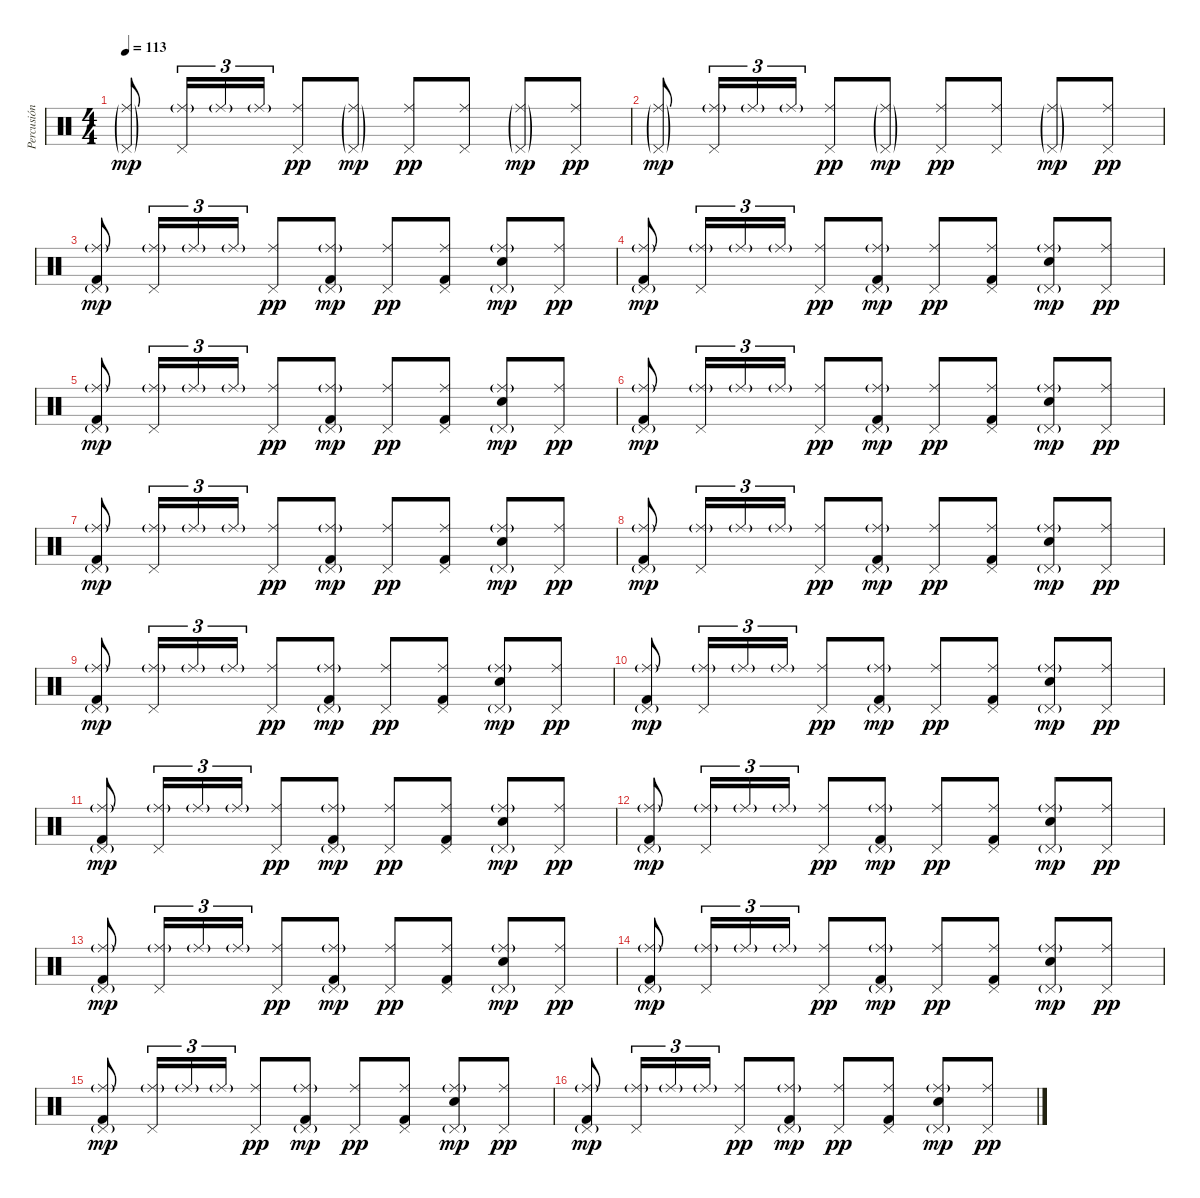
\track ("Percusión" "Percusión") {instrument percussion}
\staff {score}
\articulation defaults
\ts (4 4)
\tempo 113
\clef neutral
\ks c
("Pedal Hi-Hat (hit)"{g} "Ride (middle)"{g}).8{dy mp} ("Pedal Hi-Hat (hit)" "Ride (middle)"{g}).16{tu (3 2)} "Ride (middle)"{g}.16{tu (3 2)} "Ride (middle)"{g}.16{tu (3 2)} ("Pedal Hi-Hat (hit)" "Ride (middle)").8{dy pp} ("Pedal Hi-Hat (hit)"{g} "Ride (middle)"{g}).8{dy mp} ("Pedal Hi-Hat (hit)" "Ride (middle)").8{dy pp} ("Pedal Hi-Hat (hit)" "Ride (middle)").8 ("Pedal Hi-Hat (hit)"{g} "Ride (middle)"{g}).8{dy mp} ("Pedal Hi-Hat (hit)" "Ride (middle)").8{dy pp} |
("Pedal Hi-Hat (hit)"{g} "Ride (middle)"{g}).8{dy mp} ("Pedal Hi-Hat (hit)" "Ride (middle)"{g}).16{tu (3 2)} "Ride (middle)"{g}.16{tu (3 2)} "Ride (middle)"{g}.16{tu (3 2)} ("Pedal Hi-Hat (hit)" "Ride (middle)").8{dy pp} ("Pedal Hi-Hat (hit)"{g} "Ride (middle)"{g}).8{dy mp} ("Pedal Hi-Hat (hit)" "Ride (middle)").8{dy pp} ("Pedal Hi-Hat (hit)" "Ride (middle)").8 ("Pedal Hi-Hat (hit)"{g} "Ride (middle)"{g}).8{dy mp} ("Pedal Hi-Hat (hit)" "Ride (middle)").8{dy pp} |
("Kick (hit) 2" "Pedal Hi-Hat (hit)"{g} "Ride (middle)"{g}).8{dy mp} ("Pedal Hi-Hat (hit)" "Ride (middle)"{g}).16{tu (3 2)} "Ride (middle)"{g}.16{tu (3 2)} "Ride (middle)"{g}.16{tu (3 2)} ("Pedal Hi-Hat (hit)" "Ride (middle)").8{dy pp} ("Kick (hit) 2" "Pedal Hi-Hat (hit)"{g} "Ride (middle)"{g}).8{dy mp} ("Pedal Hi-Hat (hit)" "Ride (middle)").8{dy pp} ("Kick (hit) 2" "Pedal Hi-Hat (hit)" "Ride (middle)").8 ("Snare (hit) 2" "Pedal Hi-Hat (hit)"{g} "Ride (middle)"{g}).8{dy mp} ("Pedal Hi-Hat (hit)" "Ride (middle)").8{dy pp} |
("Kick (hit) 2" "Pedal Hi-Hat (hit)"{g} "Ride (middle)"{g}).8{dy mp} ("Pedal Hi-Hat (hit)" "Ride (middle)"{g}).16{tu (3 2)} "Ride (middle)"{g}.16{tu (3 2)} "Ride (middle)"{g}.16{tu (3 2)} ("Pedal Hi-Hat (hit)" "Ride (middle)").8{dy pp} ("Kick (hit) 2" "Pedal Hi-Hat (hit)"{g} "Ride (middle)"{g}).8{dy mp} ("Pedal Hi-Hat (hit)" "Ride (middle)").8{dy pp} ("Kick (hit) 2" "Pedal Hi-Hat (hit)" "Ride (middle)").8 ("Snare (hit) 2" "Pedal Hi-Hat (hit)"{g} "Ride (middle)"{g}).8{dy mp} ("Pedal Hi-Hat (hit)" "Ride (middle)").8{dy pp} |
("Kick (hit) 2" "Pedal Hi-Hat (hit)"{g} "Ride (middle)"{g}).8{dy mp} ("Pedal Hi-Hat (hit)" "Ride (middle)"{g}).16{tu (3 2)} "Ride (middle)"{g}.16{tu (3 2)} "Ride (middle)"{g}.16{tu (3 2)} ("Pedal Hi-Hat (hit)" "Ride (middle)").8{dy pp} ("Kick (hit) 2" "Pedal Hi-Hat (hit)"{g} "Ride (middle)"{g}).8{dy mp} ("Pedal Hi-Hat (hit)" "Ride (middle)").8{dy pp} ("Kick (hit) 2" "Pedal Hi-Hat (hit)" "Ride (middle)").8 ("Snare (hit) 2" "Pedal Hi-Hat (hit)"{g} "Ride (middle)"{g}).8{dy mp} ("Pedal Hi-Hat (hit)" "Ride (middle)").8{dy pp} |
("Kick (hit) 2" "Pedal Hi-Hat (hit)"{g} "Ride (middle)"{g}).8{dy mp} ("Pedal Hi-Hat (hit)" "Ride (middle)"{g}).16{tu (3 2)} "Ride (middle)"{g}.16{tu (3 2)} "Ride (middle)"{g}.16{tu (3 2)} ("Pedal Hi-Hat (hit)" "Ride (middle)").8{dy pp} ("Kick (hit) 2" "Pedal Hi-Hat (hit)"{g} "Ride (middle)"{g}).8{dy mp} ("Pedal Hi-Hat (hit)" "Ride (middle)").8{dy pp} ("Kick (hit) 2" "Pedal Hi-Hat (hit)" "Ride (middle)").8 ("Snare (hit) 2" "Pedal Hi-Hat (hit)"{g} "Ride (middle)"{g}).8{dy mp} ("Pedal Hi-Hat (hit)" "Ride (middle)").8{dy pp} |
("Kick (hit) 2" "Pedal Hi-Hat (hit)"{g} "Ride (middle)"{g}).8{dy mp} ("Pedal Hi-Hat (hit)" "Ride (middle)"{g}).16{tu (3 2)} "Ride (middle)"{g}.16{tu (3 2)} "Ride (middle)"{g}.16{tu (3 2)} ("Pedal Hi-Hat (hit)" "Ride (middle)").8{dy pp} ("Kick (hit) 2" "Pedal Hi-Hat (hit)"{g} "Ride (middle)"{g}).8{dy mp} ("Pedal Hi-Hat (hit)" "Ride (middle)").8{dy pp} ("Kick (hit) 2" "Pedal Hi-Hat (hit)" "Ride (middle)").8 ("Snare (hit) 2" "Pedal Hi-Hat (hit)"{g} "Ride (middle)"{g}).8{dy mp} ("Pedal Hi-Hat (hit)" "Ride (middle)").8{dy pp} |
("Kick (hit) 2" "Pedal Hi-Hat (hit)"{g} "Ride (middle)"{g}).8{dy mp} ("Pedal Hi-Hat (hit)" "Ride (middle)"{g}).16{tu (3 2)} "Ride (middle)"{g}.16{tu (3 2)} "Ride (middle)"{g}.16{tu (3 2)} ("Pedal Hi-Hat (hit)" "Ride (middle)").8{dy pp} ("Kick (hit) 2" "Pedal Hi-Hat (hit)"{g} "Ride (middle)"{g}).8{dy mp} ("Pedal Hi-Hat (hit)" "Ride (middle)").8{dy pp} ("Kick (hit) 2" "Pedal Hi-Hat (hit)" "Ride (middle)").8 ("Snare (hit) 2" "Pedal Hi-Hat (hit)"{g} "Ride (middle)"{g}).8{dy mp} ("Pedal Hi-Hat (hit)" "Ride (middle)").8{dy pp} |
("Kick (hit) 2" "Pedal Hi-Hat (hit)"{g} "Ride (middle)"{g}).8{dy mp} ("Pedal Hi-Hat (hit)" "Ride (middle)"{g}).16{tu (3 2)} "Ride (middle)"{g}.16{tu (3 2)} "Ride (middle)"{g}.16{tu (3 2)} ("Pedal Hi-Hat (hit)" "Ride (middle)").8{dy pp} ("Kick (hit) 2" "Pedal Hi-Hat (hit)"{g} "Ride (middle)"{g}).8{dy mp} ("Pedal Hi-Hat (hit)" "Ride (middle)").8{dy pp} ("Kick (hit) 2" "Pedal Hi-Hat (hit)" "Ride (middle)").8 ("Snare (hit) 2" "Pedal Hi-Hat (hit)"{g} "Ride (middle)"{g}).8{dy mp} ("Pedal Hi-Hat (hit)" "Ride (middle)").8{dy pp} |
("Kick (hit) 2" "Pedal Hi-Hat (hit)"{g} "Ride (middle)"{g}).8{dy mp} ("Pedal Hi-Hat (hit)" "Ride (middle)"{g}).16{tu (3 2)} "Ride (middle)"{g}.16{tu (3 2)} "Ride (middle)"{g}.16{tu (3 2)} ("Pedal Hi-Hat (hit)" "Ride (middle)").8{dy pp} ("Kick (hit) 2" "Pedal Hi-Hat (hit)"{g} "Ride (middle)"{g}).8{dy mp} ("Pedal Hi-Hat (hit)" "Ride (middle)").8{dy pp} ("Kick (hit) 2" "Pedal Hi-Hat (hit)" "Ride (middle)").8 ("Snare (hit) 2" "Pedal Hi-Hat (hit)"{g} "Ride (middle)"{g}).8{dy mp} ("Pedal Hi-Hat (hit)" "Ride (middle)").8{dy pp} |
("Kick (hit) 2" "Pedal Hi-Hat (hit)"{g} "Ride (middle)"{g}).8{dy mp} ("Pedal Hi-Hat (hit)" "Ride (middle)"{g}).16{tu (3 2)} "Ride (middle)"{g}.16{tu (3 2)} "Ride (middle)"{g}.16{tu (3 2)} ("Pedal Hi-Hat (hit)" "Ride (middle)").8{dy pp} ("Kick (hit) 2" "Pedal Hi-Hat (hit)"{g} "Ride (middle)"{g}).8{dy mp} ("Pedal Hi-Hat (hit)" "Ride (middle)").8{dy pp} ("Kick (hit) 2" "Pedal Hi-Hat (hit)" "Ride (middle)").8 ("Snare (hit) 2" "Pedal Hi-Hat (hit)"{g} "Ride (middle)"{g}).8{dy mp} ("Pedal Hi-Hat (hit)" "Ride (middle)").8{dy pp} |
("Kick (hit) 2" "Pedal Hi-Hat (hit)"{g} "Ride (middle)"{g}).8{dy mp} ("Pedal Hi-Hat (hit)" "Ride (middle)"{g}).16{tu (3 2)} "Ride (middle)"{g}.16{tu (3 2)} "Ride (middle)"{g}.16{tu (3 2)} ("Pedal Hi-Hat (hit)" "Ride (middle)").8{dy pp} ("Kick (hit) 2" "Pedal Hi-Hat (hit)"{g} "Ride (middle)"{g}).8{dy mp} ("Pedal Hi-Hat (hit)" "Ride (middle)").8{dy pp} ("Kick (hit) 2" "Pedal Hi-Hat (hit)" "Ride (middle)").8 ("Snare (hit) 2" "Pedal Hi-Hat (hit)"{g} "Ride (middle)"{g}).8{dy mp} ("Pedal Hi-Hat (hit)" "Ride (middle)").8{dy pp} |
("Kick (hit) 2" "Pedal Hi-Hat (hit)"{g} "Ride (middle)"{g}).8{dy mp} ("Pedal Hi-Hat (hit)" "Ride (middle)"{g}).16{tu (3 2)} "Ride (middle)"{g}.16{tu (3 2)} "Ride (middle)"{g}.16{tu (3 2)} ("Pedal Hi-Hat (hit)" "Ride (middle)").8{dy pp} ("Kick (hit) 2" "Pedal Hi-Hat (hit)"{g} "Ride (middle)"{g}).8{dy mp} ("Pedal Hi-Hat (hit)" "Ride (middle)").8{dy pp} ("Kick (hit) 2" "Pedal Hi-Hat (hit)" "Ride (middle)").8 ("Snare (hit) 2" "Pedal Hi-Hat (hit)"{g} "Ride (middle)"{g}).8{dy mp} ("Pedal Hi-Hat (hit)" "Ride (middle)").8{dy pp} |
("Kick (hit) 2" "Pedal Hi-Hat (hit)"{g} "Ride (middle)"{g}).8{dy mp} ("Pedal Hi-Hat (hit)" "Ride (middle)"{g}).16{tu (3 2)} "Ride (middle)"{g}.16{tu (3 2)} "Ride (middle)"{g}.16{tu (3 2)} ("Pedal Hi-Hat (hit)" "Ride (middle)").8{dy pp} ("Kick (hit) 2" "Pedal Hi-Hat (hit)"{g} "Ride (middle)"{g}).8{dy mp} ("Pedal Hi-Hat (hit)" "Ride (middle)").8{dy pp} ("Kick (hit) 2" "Pedal Hi-Hat (hit)" "Ride (middle)").8 ("Snare (hit) 2" "Pedal Hi-Hat (hit)"{g} "Ride (middle)"{g}).8{dy mp} ("Pedal Hi-Hat (hit)" "Ride (middle)").8{dy pp} |
("Kick (hit) 2" "Pedal Hi-Hat (hit)"{g} "Ride (middle)"{g}).8{dy mp} ("Pedal Hi-Hat (hit)" "Ride (middle)"{g}).16{tu (3 2)} "Ride (middle)"{g}.16{tu (3 2)} "Ride (middle)"{g}.16{tu (3 2)} ("Pedal Hi-Hat (hit)" "Ride (middle)").8{dy pp} ("Kick (hit) 2" "Pedal Hi-Hat (hit)"{g} "Ride (middle)"{g}).8{dy mp} ("Pedal Hi-Hat (hit)" "Ride (middle)").8{dy pp} ("Kick (hit) 2" "Pedal Hi-Hat (hit)" "Ride (middle)").8 ("Snare (hit) 2" "Pedal Hi-Hat (hit)"{g} "Ride (middle)"{g}).8{dy mp} ("Pedal Hi-Hat (hit)" "Ride (middle)").8{dy pp} |
("Kick (hit) 2" "Pedal Hi-Hat (hit)"{g} "Ride (middle)"{g}).8{dy mp} ("Pedal Hi-Hat (hit)" "Ride (middle)"{g}).16{tu (3 2)} "Ride (middle)"{g}.16{tu (3 2)} "Ride (middle)"{g}.16{tu (3 2)} ("Pedal Hi-Hat (hit)" "Ride (middle)").8{dy pp} ("Kick (hit) 2" "Pedal Hi-Hat (hit)"{g} "Ride (middle)"{g}).8{dy mp} ("Pedal Hi-Hat (hit)" "Ride (middle)").8{dy pp} ("Kick (hit) 2" "Pedal Hi-Hat (hit)" "Ride (middle)").8 ("Snare (hit) 2" "Pedal Hi-Hat (hit)"{g} "Ride (middle)"{g}).8{dy mp} ("Pedal Hi-Hat (hit)" "Ride (middle)").8{dy pp}
